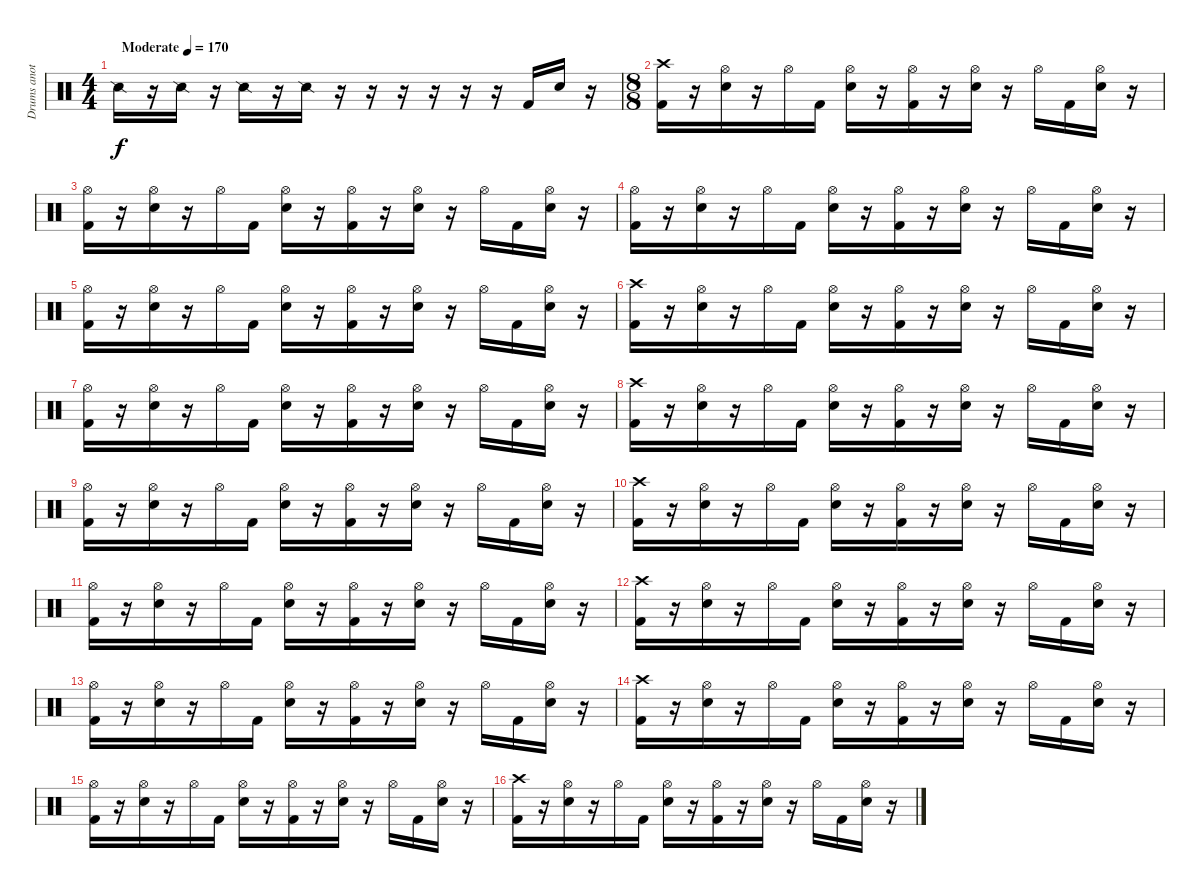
\track ("Drums another version" "Drums anot") {mute instrument percussion}
\staff {score}
\articulation defaults
\ts (4 4)
\tempo (170 "Moderate")
\clef neutral
\ks c "Snare (side stick) 2".16{dy f}
r.16 "Snare (side stick) 2".16 r.16 "Snare (side stick) 2".16 r.16 "Snare (side stick) 2".16 r.16 r.16 r.16 r.16 r.16 r.16 "Kick (hit) 2".16 "Snare (hit) 2".16 r.16 |
\ts (8 8)
("Crash high (hit)" "Kick (hit) 2").16 r.16 ("Hi-Hat (open)" "Snare (hit) 2").16 r.16 "Hi-Hat (open)".16 "Kick (hit) 2".16 ("Hi-Hat (open)" "Snare (hit) 2").16 r.16 ("Hi-Hat (open)" "Kick (hit) 2").16 r.16 ("Hi-Hat (open)" "Snare (hit) 2").16 r.16 "Hi-Hat (open)".16 "Kick (hit) 2".16 ("Hi-Hat (open)" "Snare (hit) 2").16 r.16 |
("Hi-Hat (open)" "Kick (hit) 2").16 r.16 ("Hi-Hat (open)" "Snare (hit) 2").16 r.16 "Hi-Hat (open)".16 "Kick (hit) 2".16 ("Hi-Hat (open)" "Snare (hit) 2").16 r.16 ("Hi-Hat (open)" "Kick (hit) 2").16 r.16 ("Hi-Hat (open)" "Snare (hit) 2").16 r.16 "Hi-Hat (open)".16 "Kick (hit) 2".16 ("Hi-Hat (open)" "Snare (hit) 2").16 r.16 |
("Hi-Hat (open)" "Kick (hit) 2").16 r.16 ("Hi-Hat (open)" "Snare (hit) 2").16 r.16 "Hi-Hat (open)".16 "Kick (hit) 2".16 ("Hi-Hat (open)" "Snare (hit) 2").16 r.16 ("Hi-Hat (open)" "Kick (hit) 2").16 r.16 ("Hi-Hat (open)" "Snare (hit) 2").16 r.16 "Hi-Hat (open)".16 "Kick (hit) 2".16 ("Hi-Hat (open)" "Snare (hit) 2").16 r.16 |
("Hi-Hat (open)" "Kick (hit) 2").16 r.16 ("Hi-Hat (open)" "Snare (hit) 2").16 r.16 "Hi-Hat (open)".16 "Kick (hit) 2".16 ("Hi-Hat (open)" "Snare (hit) 2").16 r.16 ("Hi-Hat (open)" "Kick (hit) 2").16 r.16 ("Hi-Hat (open)" "Snare (hit) 2").16 r.16 "Hi-Hat (open)".16 "Kick (hit) 2".16 ("Hi-Hat (open)" "Snare (hit) 2").16 r.16 |
("Crash high (hit)" "Kick (hit) 2").16 r.16 ("Hi-Hat (open)" "Snare (hit) 2").16 r.16 "Hi-Hat (open)".16 "Kick (hit) 2".16 ("Hi-Hat (open)" "Snare (hit) 2").16 r.16 ("Hi-Hat (open)" "Kick (hit) 2").16 r.16 ("Hi-Hat (open)" "Snare (hit) 2").16 r.16 "Hi-Hat (open)".16 "Kick (hit) 2".16 ("Hi-Hat (open)" "Snare (hit) 2").16 r.16 |
("Hi-Hat (open)" "Kick (hit) 2").16 r.16 ("Hi-Hat (open)" "Snare (hit) 2").16 r.16 "Hi-Hat (open)".16 "Kick (hit) 2".16 ("Hi-Hat (open)" "Snare (hit) 2").16 r.16 ("Hi-Hat (open)" "Kick (hit) 2").16 r.16 ("Hi-Hat (open)" "Snare (hit) 2").16 r.16 "Hi-Hat (open)".16 "Kick (hit) 2".16 ("Hi-Hat (open)" "Snare (hit) 2").16 r.16 |
("Crash high (hit)" "Kick (hit) 2").16 r.16 ("Hi-Hat (open)" "Snare (hit) 2").16 r.16 "Hi-Hat (open)".16 "Kick (hit) 2".16 ("Hi-Hat (open)" "Snare (hit) 2").16 r.16 ("Hi-Hat (open)" "Kick (hit) 2").16 r.16 ("Hi-Hat (open)" "Snare (hit) 2").16 r.16 "Hi-Hat (open)".16 "Kick (hit) 2".16 ("Hi-Hat (open)" "Snare (hit) 2").16 r.16 |
("Hi-Hat (open)" "Kick (hit) 2").16 r.16 ("Hi-Hat (open)" "Snare (hit) 2").16 r.16 "Hi-Hat (open)".16 "Kick (hit) 2".16 ("Hi-Hat (open)" "Snare (hit) 2").16 r.16 ("Hi-Hat (open)" "Kick (hit) 2").16 r.16 ("Hi-Hat (open)" "Snare (hit) 2").16 r.16 "Hi-Hat (open)".16 "Kick (hit) 2".16 ("Hi-Hat (open)" "Snare (hit) 2").16 r.16 |
("Crash high (hit)" "Kick (hit) 2").16 r.16 ("Hi-Hat (open)" "Snare (hit) 2").16 r.16 "Hi-Hat (open)".16 "Kick (hit) 2".16 ("Hi-Hat (open)" "Snare (hit) 2").16 r.16 ("Hi-Hat (open)" "Kick (hit) 2").16 r.16 ("Hi-Hat (open)" "Snare (hit) 2").16 r.16 "Hi-Hat (open)".16 "Kick (hit) 2".16 ("Hi-Hat (open)" "Snare (hit) 2").16 r.16 |
("Hi-Hat (open)" "Kick (hit) 2").16 r.16 ("Hi-Hat (open)" "Snare (hit) 2").16 r.16 "Hi-Hat (open)".16 "Kick (hit) 2".16 ("Hi-Hat (open)" "Snare (hit) 2").16 r.16 ("Hi-Hat (open)" "Kick (hit) 2").16 r.16 ("Hi-Hat (open)" "Snare (hit) 2").16 r.16 "Hi-Hat (open)".16 "Kick (hit) 2".16 ("Hi-Hat (open)" "Snare (hit) 2").16 r.16 |
("Crash high (hit)" "Kick (hit) 2").16 r.16 ("Hi-Hat (open)" "Snare (hit) 2").16 r.16 "Hi-Hat (open)".16 "Kick (hit) 2".16 ("Hi-Hat (open)" "Snare (hit) 2").16 r.16 ("Hi-Hat (open)" "Kick (hit) 2").16 r.16 ("Hi-Hat (open)" "Snare (hit) 2").16 r.16 "Hi-Hat (open)".16 "Kick (hit) 2".16 ("Hi-Hat (open)" "Snare (hit) 2").16 r.16 |
("Hi-Hat (open)" "Kick (hit) 2").16 r.16 ("Hi-Hat (open)" "Snare (hit) 2").16 r.16 "Hi-Hat (open)".16 "Kick (hit) 2".16 ("Hi-Hat (open)" "Snare (hit) 2").16 r.16 ("Hi-Hat (open)" "Kick (hit) 2").16 r.16 ("Hi-Hat (open)" "Snare (hit) 2").16 r.16 "Hi-Hat (open)".16 "Kick (hit) 2".16 ("Hi-Hat (open)" "Snare (hit) 2").16 r.16 |
("Crash high (hit)" "Kick (hit) 2").16 r.16 ("Hi-Hat (open)" "Snare (hit) 2").16 r.16 "Hi-Hat (open)".16 "Kick (hit) 2".16 ("Hi-Hat (open)" "Snare (hit) 2").16 r.16 ("Hi-Hat (open)" "Kick (hit) 2").16 r.16 ("Hi-Hat (open)" "Snare (hit) 2").16 r.16 "Hi-Hat (open)".16 "Kick (hit) 2".16 ("Hi-Hat (open)" "Snare (hit) 2").16 r.16 |
("Hi-Hat (open)" "Kick (hit) 2").16 r.16 ("Hi-Hat (open)" "Snare (hit) 2").16 r.16 "Hi-Hat (open)".16 "Kick (hit) 2".16 ("Hi-Hat (open)" "Snare (hit) 2").16 r.16 ("Hi-Hat (open)" "Kick (hit) 2").16 r.16 ("Hi-Hat (open)" "Snare (hit) 2").16 r.16 "Hi-Hat (open)".16 "Kick (hit) 2".16 ("Hi-Hat (open)" "Snare (hit) 2").16 r.16 |
("Crash high (hit)" "Kick (hit) 2").16 r.16 ("Hi-Hat (open)" "Snare (hit) 2").16 r.16 "Hi-Hat (open)".16 "Kick (hit) 2".16 ("Hi-Hat (open)" "Snare (hit) 2").16 r.16 ("Hi-Hat (open)" "Kick (hit) 2").16 r.16 ("Hi-Hat (open)" "Snare (hit) 2").16 r.16 "Hi-Hat (open)".16 "Kick (hit) 2".16 ("Hi-Hat (open)" "Snare (hit) 2").16 r.16
